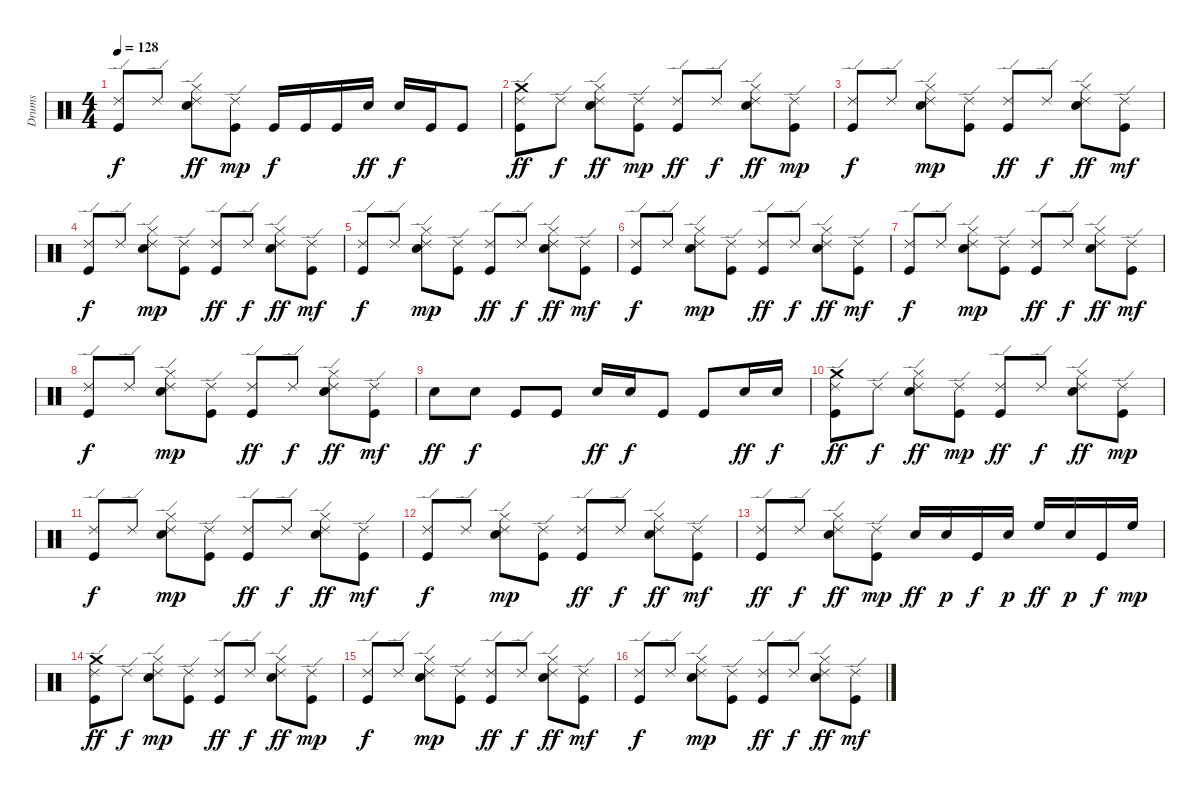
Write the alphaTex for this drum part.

\track ("Drums" "Drums") {instrument percussion}
\staff {score}
\articulation defaults
\ts (4 4)
\tempo 128
\clef neutral
\ks c
("Ride (edge) 2" "Kick (hit)").8{dy f} "Ride (edge) 2".8 ("Electric Snare (hit)" "Hi-Hat (closed)" "Ride (edge) 2").8{dy ff} ("Ride (edge) 2" "Kick (hit)").8{dy mp} "Kick (hit)".16{dy f} "Kick (hit)".16 "Kick (hit)".16 "Electric Snare (hit)".16{dy ff} "Electric Snare (hit)".16{dy f} "Kick (hit)".16 "Kick (hit)".8 |
("Crash medium (hit)" "Ride (edge) 2" "Kick (hit)").8{dy ff} "Ride (edge) 2".8{dy f} ("Electric Snare (hit)" "Hi-Hat (closed)" "Ride (edge) 2").8{dy ff} ("Ride (edge) 2" "Kick (hit)").8{dy mp} ("Ride (edge) 2" "Kick (hit)").8{dy ff} "Ride (edge) 2".8{dy f} ("Electric Snare (hit)" "Hi-Hat (closed)" "Ride (edge) 2").8{dy ff} ("Ride (edge) 2" "Kick (hit)").8{dy mp} |
("Ride (edge) 2" "Kick (hit)").8{dy f} "Ride (edge) 2".8 ("Electric Snare (hit)" "Hi-Hat (closed)" "Ride (edge) 2").8{dy mp} ("Ride (edge) 2" "Kick (hit)").8 ("Ride (edge) 2" "Kick (hit)").8{dy ff} "Ride (edge) 2".8{dy f} ("Electric Snare (hit)" "Hi-Hat (closed)" "Ride (edge) 2").8{dy ff} ("Ride (edge) 2" "Kick (hit)").8{dy mf} |
("Ride (edge) 2" "Kick (hit)").8{dy f} "Ride (edge) 2".8 ("Electric Snare (hit)" "Hi-Hat (closed)" "Ride (edge) 2").8{dy mp} ("Ride (edge) 2" "Kick (hit)").8 ("Ride (edge) 2" "Kick (hit)").8{dy ff} "Ride (edge) 2".8{dy f} ("Electric Snare (hit)" "Hi-Hat (closed)" "Ride (edge) 2").8{dy ff} ("Ride (edge) 2" "Kick (hit)").8{dy mf} |
("Ride (edge) 2" "Kick (hit)").8{dy f} "Ride (edge) 2".8 ("Electric Snare (hit)" "Hi-Hat (closed)" "Ride (edge) 2").8{dy mp} ("Ride (edge) 2" "Kick (hit)").8 ("Ride (edge) 2" "Kick (hit)").8{dy ff} "Ride (edge) 2".8{dy f} ("Electric Snare (hit)" "Hi-Hat (closed)" "Ride (edge) 2").8{dy ff} ("Ride (edge) 2" "Kick (hit)").8{dy mf} |
("Ride (edge) 2" "Kick (hit)").8{dy f} "Ride (edge) 2".8 ("Electric Snare (hit)" "Hi-Hat (closed)" "Ride (edge) 2").8{dy mp} ("Ride (edge) 2" "Kick (hit)").8 ("Ride (edge) 2" "Kick (hit)").8{dy ff} "Ride (edge) 2".8{dy f} ("Electric Snare (hit)" "Hi-Hat (closed)" "Ride (edge) 2").8{dy ff} ("Ride (edge) 2" "Kick (hit)").8{dy mf} |
("Ride (edge) 2" "Kick (hit)").8{dy f} "Ride (edge) 2".8 ("Electric Snare (hit)" "Hi-Hat (closed)" "Ride (edge) 2").8{dy mp} ("Ride (edge) 2" "Kick (hit)").8 ("Ride (edge) 2" "Kick (hit)").8{dy ff} "Ride (edge) 2".8{dy f} ("Electric Snare (hit)" "Hi-Hat (closed)" "Ride (edge) 2").8{dy ff} ("Ride (edge) 2" "Kick (hit)").8{dy mf} |
("Ride (edge) 2" "Kick (hit)").8{dy f} "Ride (edge) 2".8 ("Electric Snare (hit)" "Hi-Hat (closed)" "Ride (edge) 2").8{dy mp} ("Ride (edge) 2" "Kick (hit)").8 ("Ride (edge) 2" "Kick (hit)").8{dy ff} "Ride (edge) 2".8{dy f} ("Electric Snare (hit)" "Hi-Hat (closed)" "Ride (edge) 2").8{dy ff} ("Ride (edge) 2" "Kick (hit)").8{dy mf} |
"Electric Snare (hit)".8{dy ff} "Electric Snare (hit)".8{dy f} "Kick (hit)".8 "Kick (hit)".8 "Electric Snare (hit)".16{dy ff} "Electric Snare (hit)".16{dy f} "Kick (hit)".8 "Kick (hit)".8 "Electric Snare (hit)".16{dy ff} "Electric Snare (hit)".16{dy f} |
("Crash medium (hit)" "Ride (edge) 2" "Kick (hit)").8{dy ff} "Ride (edge) 2".8{dy f} ("Electric Snare (hit)" "Hi-Hat (closed)" "Ride (edge) 2").8{dy ff} ("Ride (edge) 2" "Kick (hit)").8{dy mp} ("Ride (edge) 2" "Kick (hit)").8{dy ff} "Ride (edge) 2".8{dy f} ("Electric Snare (hit)" "Hi-Hat (closed)" "Ride (edge) 2").8{dy ff} ("Ride (edge) 2" "Kick (hit)").8{dy mp} |
("Ride (edge) 2" "Kick (hit)").8{dy f} "Ride (edge) 2".8 ("Electric Snare (hit)" "Hi-Hat (closed)" "Ride (edge) 2").8{dy mp} ("Ride (edge) 2" "Kick (hit)").8 ("Ride (edge) 2" "Kick (hit)").8{dy ff} "Ride (edge) 2".8{dy f} ("Electric Snare (hit)" "Hi-Hat (closed)" "Ride (edge) 2").8{dy ff} ("Ride (edge) 2" "Kick (hit)").8{dy mf} |
("Ride (edge) 2" "Kick (hit)").8{dy f} "Ride (edge) 2".8 ("Electric Snare (hit)" "Hi-Hat (closed)" "Ride (edge) 2").8{dy mp} ("Ride (edge) 2" "Kick (hit)").8 ("Ride (edge) 2" "Kick (hit)").8{dy ff} "Ride (edge) 2".8{dy f} ("Electric Snare (hit)" "Hi-Hat (closed)" "Ride (edge) 2").8{dy ff} ("Ride (edge) 2" "Kick (hit)").8{dy mf} |
("Ride (edge) 2" "Kick (hit)").8{dy ff} "Ride (edge) 2".8{dy f} ("Electric Snare (hit)" "Hi-Hat (closed)" "Ride (edge) 2").8{dy ff} ("Ride (edge) 2" "Kick (hit)").8{dy mp} "Electric Snare (hit)".16{dy ff} "Electric Snare (hit)".16{dy p} "Kick (hit)".16{dy f} "Electric Snare (hit)".16{dy p} "High Floor Tom (hit)".16{dy ff} "Electric Snare (hit)".16{dy p} "Kick (hit)".16{dy f} "High Floor Tom (hit)".16{dy mp} |
("Crash medium (hit)" "Ride (edge) 2" "Kick (hit)").8{dy ff} "Ride (edge) 2".8{dy f} ("Electric Snare (hit)" "Hi-Hat (closed)" "Ride (edge) 2").8{dy mp} ("Ride (edge) 2" "Kick (hit)").8 ("Ride (edge) 2" "Kick (hit)").8{dy ff} "Ride (edge) 2".8{dy f} ("Electric Snare (hit)" "Hi-Hat (closed)" "Ride (edge) 2").8{dy ff} ("Ride (edge) 2" "Kick (hit)").8{dy mp} |
("Ride (edge) 2" "Kick (hit)").8{dy f} "Ride (edge) 2".8 ("Electric Snare (hit)" "Hi-Hat (closed)" "Ride (edge) 2").8{dy mp} ("Ride (edge) 2" "Kick (hit)").8 ("Ride (edge) 2" "Kick (hit)").8{dy ff} "Ride (edge) 2".8{dy f} ("Electric Snare (hit)" "Hi-Hat (closed)" "Ride (edge) 2").8{dy ff} ("Ride (edge) 2" "Kick (hit)").8{dy mf} |
("Ride (edge) 2" "Kick (hit)").8{dy f} "Ride (edge) 2".8 ("Electric Snare (hit)" "Hi-Hat (closed)" "Ride (edge) 2").8{dy mp} ("Ride (edge) 2" "Kick (hit)").8 ("Ride (edge) 2" "Kick (hit)").8{dy ff} "Ride (edge) 2".8{dy f} ("Electric Snare (hit)" "Hi-Hat (closed)" "Ride (edge) 2").8{dy ff} ("Ride (edge) 2" "Kick (hit)").8{dy mf}
